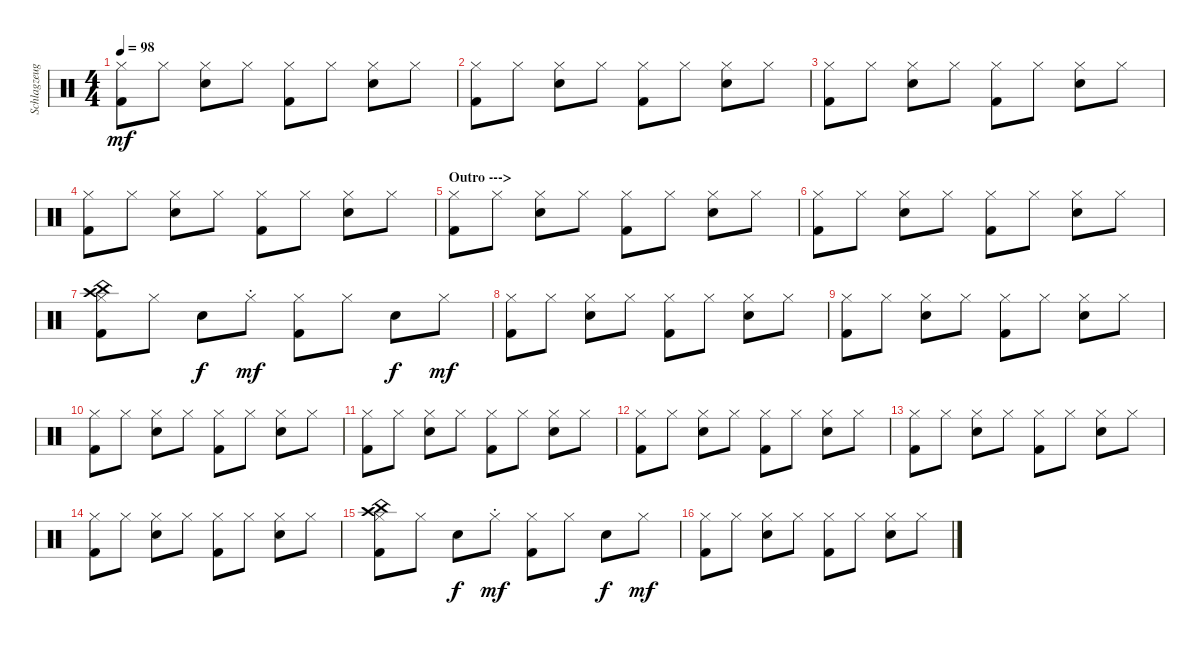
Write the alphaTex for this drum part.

\track ("Schlagzeug" "Schlagzeug") {instrument percussion}
\staff {score}
\articulation defaults
\ts (4 4)
\tempo 98
\clef neutral
\ks c
("Hi-Hat (closed)" "Kick (hit) 2").8{dy mf} "Hi-Hat (closed)".8 ("Hi-Hat (closed)" "Electric Snare (hit)").8 "Hi-Hat (closed)".8 ("Hi-Hat (closed)" "Kick (hit) 2").8 "Hi-Hat (closed)".8 ("Hi-Hat (closed)" "Electric Snare (hit)").8 "Hi-Hat (closed)".8 |
("Hi-Hat (closed)" "Kick (hit) 2").8 "Hi-Hat (closed)".8 ("Hi-Hat (closed)" "Electric Snare (hit)").8 "Hi-Hat (closed)".8 ("Hi-Hat (closed)" "Kick (hit) 2").8 "Hi-Hat (closed)".8 ("Hi-Hat (closed)" "Electric Snare (hit)").8 "Hi-Hat (closed)".8 |
("Hi-Hat (closed)" "Kick (hit) 2").8 "Hi-Hat (closed)".8 ("Hi-Hat (closed)" "Electric Snare (hit)").8 "Hi-Hat (closed)".8 ("Hi-Hat (closed)" "Kick (hit) 2").8 "Hi-Hat (closed)".8 ("Hi-Hat (closed)" "Electric Snare (hit)").8 "Hi-Hat (closed)".8 |
("Hi-Hat (closed)" "Kick (hit) 2").8 "Hi-Hat (closed)".8 ("Hi-Hat (closed)" "Electric Snare (hit)").8 "Hi-Hat (closed)".8 ("Hi-Hat (closed)" "Kick (hit) 2").8 "Hi-Hat (closed)".8 ("Hi-Hat (closed)" "Electric Snare (hit)").8 "Hi-Hat (closed)".8 |
\section ("" "Outro ---> ")
("Hi-Hat (closed)" "Kick (hit) 2").8 "Hi-Hat (closed)".8 ("Hi-Hat (closed)" "Electric Snare (hit)").8 "Hi-Hat (closed)".8 ("Hi-Hat (closed)" "Kick (hit) 2").8 "Hi-Hat (closed)".8 ("Hi-Hat (closed)" "Electric Snare (hit)").8 "Hi-Hat (closed)".8 |
("Hi-Hat (closed)" "Kick (hit) 2").8 "Hi-Hat (closed)".8 ("Hi-Hat (closed)" "Electric Snare (hit)").8 "Hi-Hat (closed)".8 ("Hi-Hat (closed)" "Kick (hit) 2").8 "Hi-Hat (closed)".8 ("Hi-Hat (closed)" "Electric Snare (hit)").8 "Hi-Hat (closed)".8 |
("China (hit)" "Hi-Hat (closed)" "Crash high (hit)" "Kick (hit) 2").8 "Hi-Hat (closed)".8 "Electric Snare (hit)".8{dy f} "Hi-Hat (closed)"{st}.8{dy mf} ("Hi-Hat (closed)" "Kick (hit) 2").8 "Hi-Hat (closed)".8 "Electric Snare (hit)".8{dy f} "Hi-Hat (closed)".8{dy mf} |
("Hi-Hat (closed)" "Kick (hit) 2").8 "Hi-Hat (closed)".8 ("Hi-Hat (closed)" "Electric Snare (hit)").8 "Hi-Hat (closed)".8 ("Hi-Hat (closed)" "Kick (hit) 2").8 "Hi-Hat (closed)".8 ("Hi-Hat (closed)" "Electric Snare (hit)").8 "Hi-Hat (closed)".8 |
("Hi-Hat (closed)" "Kick (hit) 2").8 "Hi-Hat (closed)".8 ("Hi-Hat (closed)" "Electric Snare (hit)").8 "Hi-Hat (closed)".8 ("Hi-Hat (closed)" "Kick (hit) 2").8 "Hi-Hat (closed)".8 ("Hi-Hat (closed)" "Electric Snare (hit)").8 "Hi-Hat (closed)".8 |
("Hi-Hat (closed)" "Kick (hit) 2").8 "Hi-Hat (closed)".8 ("Hi-Hat (closed)" "Electric Snare (hit)").8 "Hi-Hat (closed)".8 ("Hi-Hat (closed)" "Kick (hit) 2").8 "Hi-Hat (closed)".8 ("Hi-Hat (closed)" "Electric Snare (hit)").8 "Hi-Hat (closed)".8 |
("Hi-Hat (closed)" "Kick (hit) 2").8 "Hi-Hat (closed)".8 ("Hi-Hat (closed)" "Electric Snare (hit)").8 "Hi-Hat (closed)".8 ("Hi-Hat (closed)" "Kick (hit) 2").8 "Hi-Hat (closed)".8 ("Hi-Hat (closed)" "Electric Snare (hit)").8 "Hi-Hat (closed)".8 |
("Hi-Hat (closed)" "Kick (hit) 2").8 "Hi-Hat (closed)".8 ("Hi-Hat (closed)" "Electric Snare (hit)").8 "Hi-Hat (closed)".8 ("Hi-Hat (closed)" "Kick (hit) 2").8 "Hi-Hat (closed)".8 ("Hi-Hat (closed)" "Electric Snare (hit)").8 "Hi-Hat (closed)".8 |
("Hi-Hat (closed)" "Kick (hit) 2").8 "Hi-Hat (closed)".8 ("Hi-Hat (closed)" "Electric Snare (hit)").8 "Hi-Hat (closed)".8 ("Hi-Hat (closed)" "Kick (hit) 2").8 "Hi-Hat (closed)".8 ("Hi-Hat (closed)" "Electric Snare (hit)").8 "Hi-Hat (closed)".8 |
("Hi-Hat (closed)" "Kick (hit) 2").8 "Hi-Hat (closed)".8 ("Hi-Hat (closed)" "Electric Snare (hit)").8 "Hi-Hat (closed)".8 ("Hi-Hat (closed)" "Kick (hit) 2").8 "Hi-Hat (closed)".8 ("Hi-Hat (closed)" "Electric Snare (hit)").8 "Hi-Hat (closed)".8 |
("China (hit)" "Hi-Hat (closed)" "Crash high (hit)" "Kick (hit) 2").8 "Hi-Hat (closed)".8 "Electric Snare (hit)".8{dy f} "Hi-Hat (closed)"{st}.8{dy mf} ("Hi-Hat (closed)" "Kick (hit) 2").8 "Hi-Hat (closed)".8 "Electric Snare (hit)".8{dy f} "Hi-Hat (closed)".8{dy mf} |
("Hi-Hat (closed)" "Kick (hit) 2").8 "Hi-Hat (closed)".8 ("Hi-Hat (closed)" "Electric Snare (hit)").8 "Hi-Hat (closed)".8 ("Hi-Hat (closed)" "Kick (hit) 2").8 "Hi-Hat (closed)".8 ("Hi-Hat (closed)" "Electric Snare (hit)").8 "Hi-Hat (closed)".8
